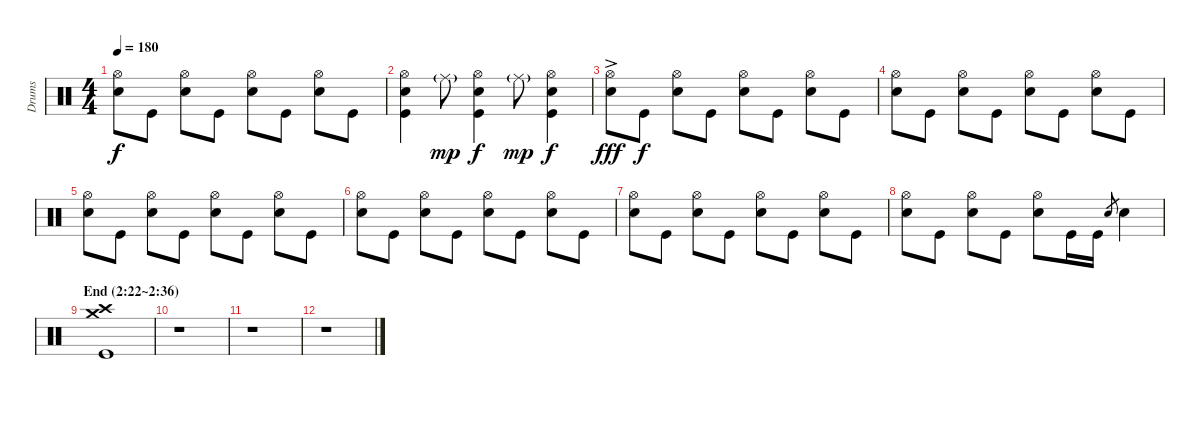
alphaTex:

\track ("Drums" "Drums") {instrument percussion}
\staff {score}
\articulation defaults
\ts (4 4)
\tempo 180
\clef neutral
\ks c
("Hi-Hat (open)" "Snare (hit) 2").8{dy f} "Kick (hit)".8 ("Hi-Hat (open)" "Snare (hit) 2").8 "Kick (hit)".8 ("Hi-Hat (open)" "Snare (hit) 2").8 "Kick (hit)".8 ("Hi-Hat (open)" "Snare (hit) 2").8 "Kick (hit)".8 |
("Hi-Hat (open)" "Snare (hit) 2" "Kick (hit)").4 "Ride (middle)"{g}.8{dy mp} ("Hi-Hat (open)" "Snare (hit) 2" "Kick (hit)").4{dy f} "Ride (middle)"{g}.8{dy mp} ("Hi-Hat (open)" "Snare (hit) 2" "Kick (hit)").4{dy f} |
("Hi-Hat (open)"{ac} "Snare (hit) 2").8{dy fff} "Kick (hit)".8{dy f} ("Hi-Hat (open)" "Snare (hit) 2").8 "Kick (hit)".8 ("Hi-Hat (open)" "Snare (hit) 2").8 "Kick (hit)".8 ("Hi-Hat (open)" "Snare (hit) 2").8 "Kick (hit)".8 |
("Hi-Hat (open)" "Snare (hit) 2").8 "Kick (hit)".8 ("Hi-Hat (open)" "Snare (hit) 2").8 "Kick (hit)".8 ("Hi-Hat (open)" "Snare (hit) 2").8 "Kick (hit)".8 ("Hi-Hat (open)" "Snare (hit) 2").8 "Kick (hit)".8 |
("Hi-Hat (open)" "Snare (hit) 2").8 "Kick (hit)".8 ("Hi-Hat (open)" "Snare (hit) 2").8 "Kick (hit)".8 ("Hi-Hat (open)" "Snare (hit) 2").8 "Kick (hit)".8 ("Hi-Hat (open)" "Snare (hit) 2").8 "Kick (hit)".8 |
("Hi-Hat (open)" "Snare (hit) 2").8 "Kick (hit)".8 ("Hi-Hat (open)" "Snare (hit) 2").8 "Kick (hit)".8 ("Hi-Hat (open)" "Snare (hit) 2").8 "Kick (hit)".8 ("Hi-Hat (open)" "Snare (hit) 2").8 "Kick (hit)".8 |
("Hi-Hat (open)" "Snare (hit) 2").8 "Kick (hit)".8 ("Hi-Hat (open)" "Snare (hit) 2").8 "Kick (hit)".8 ("Hi-Hat (open)" "Snare (hit) 2").8 "Kick (hit)".8 ("Hi-Hat (open)" "Snare (hit) 2").8 "Kick (hit)".8 |
("Hi-Hat (open)" "Snare (hit) 2").8 "Kick (hit)".8 ("Hi-Hat (open)" "Snare (hit) 2").8 "Kick (hit)".8 ("Hi-Hat (open)" "Snare (hit) 2").8 "Kick (hit)".16 "Kick (hit)".16 "Snare (hit) 2".8{gr} "Snare (hit) 2".4 |
\section ("" "End (2:22~2:36)")
("Crash high (hit)" "Crash medium (hit)" "Kick (hit)").1 |
r.1 |
r.1 |
r.1
